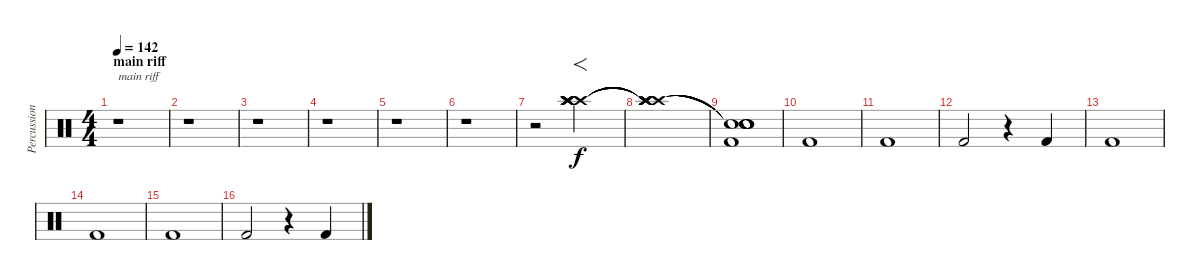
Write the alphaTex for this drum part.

\track ("Percussion" "Percussion") {instrument percussion}
\staff {score}
\articulation defaults
\ts (4 4)
\section ("" "main riff")
\tempo 142
\clef neutral
\ks c
r.1{txt "main riff" dy f} |
r.1 |
r.1 |
r.1 |
r.1 |
r.1 |
r.2 ("Crash high (hit)" "Crash high (hit)" "Crash high (hit)" "Crash high (hit)" "Crash high (hit)" "Crash high (hit)").2{f} |
("Crash high (hit)"{t} "Crash high (hit)"{t} "Crash high (hit)"{t} "Crash high (hit)"{t} "Crash high (hit)"{t} "Crash high (hit)"{t}).1 |
("Snare (hit)"{t} "Snare (hit)"{t} "Snare (hit)"{t} "Snare (hit)"{t} "Snare (hit)"{t} "Kick (hit) 2").1 |
"Kick (hit) 2".1 |
"Kick (hit) 2".1 |
"Kick (hit) 2".2 r.4 "Kick (hit) 2".4 |
"Kick (hit) 2".1 |
"Kick (hit) 2".1 |
"Kick (hit) 2".1 |
"Kick (hit) 2".2 r.4 "Kick (hit) 2".4
